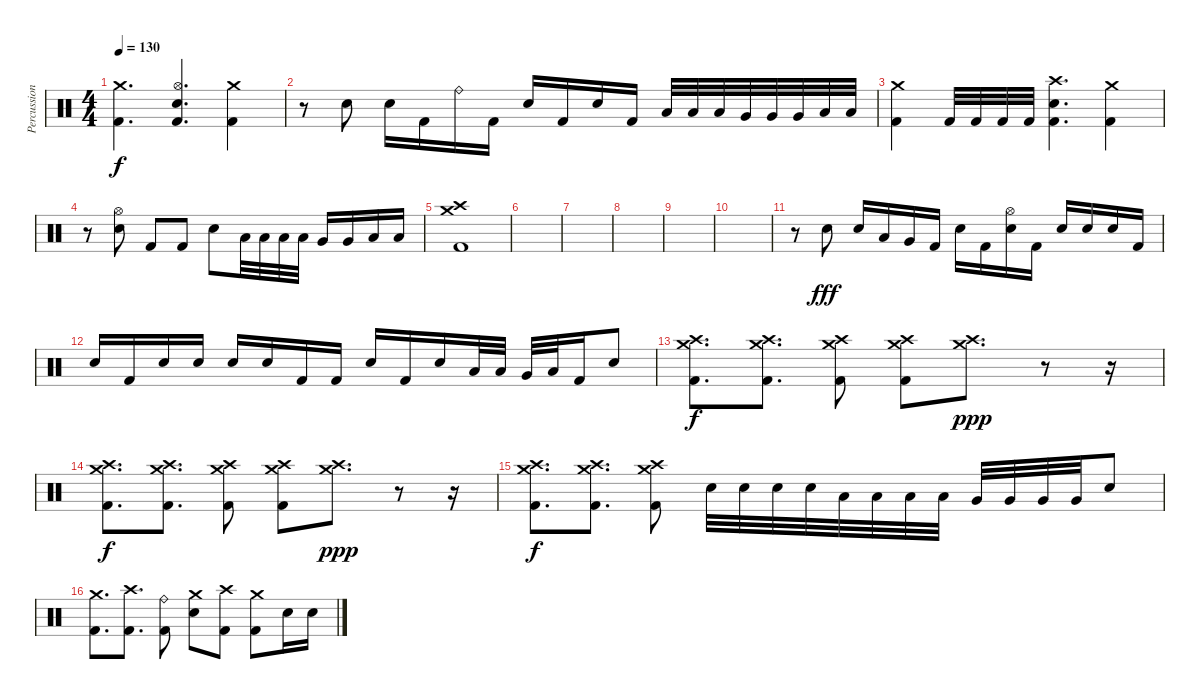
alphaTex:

\track ("Percussion" "Percussion") {instrument percussion}
\staff {score}
\articulation defaults
\ts (4 4)
\tempo 130
\clef neutral
\ks c
("Crash medium (hit)" "Kick (hit) 2").4{d dy f} ("Hi-Hat (open)" "Electric Snare (hit)" "Kick (hit) 2").4{d} ("Crash medium (hit)" "Kick (hit) 2").4 |
r.8 "Electric Snare (hit)".8 "Electric Snare (hit)".16 "Kick (hit) 2".16 "Ride (bell)".16 "Kick (hit) 2".16 "Electric Snare (hit)".16 "Kick (hit) 2".16 "Electric Snare (hit)".16 "Kick (hit) 2".16 "Low Tom (hit)".32 "Low Tom (hit)".32 "Low Tom (hit)".32 "Very Low Tom (hit)".32 "Very Low Tom (hit)".32 "Very Low Tom (hit)".32 "Low Floor Tom (hit)".32 "Low Floor Tom (hit)".32 |
("Crash medium (hit)" "Kick (hit) 2").4 "Kick (hit) 2".32 "Kick (hit) 2".32 "Kick (hit) 2".32 "Kick (hit) 2".32 ("Crash high (hit)" "Electric Snare (hit)" "Kick (hit) 2").4{d} ("Crash medium (hit)" "Kick (hit) 2").4 |
r.8 ("Hi-Hat (open)" "Electric Snare (hit)").8 "Kick (hit) 2".8 "Kick (hit) 2".8 "Electric Snare (hit)".8 "Low Tom (hit)".32 "Low Tom (hit)".32 "Low Tom (hit)".32 "Low Tom (hit)".32 "Very Low Tom (hit)".16 "Very Low Tom (hit)".16 "Low Floor Tom (hit)".16 "Low Floor Tom (hit)".16 |
("Crash medium (hit)" "Crash high (hit)" "Kick (hit) 2").1 |
|
|
|
|
|
r.8 "Electric Snare (hit)".8{dy fff} "Electric Snare (hit)".16 "Low Tom (hit)".16 "Very Low Tom (hit)".16 "Kick (hit) 2".16 "Electric Snare (hit)".16 "Kick (hit) 2".16 ("Hi-Hat (open)" "Electric Snare (hit)").16 "Kick (hit) 2".16 "Electric Snare (hit)".16 "Electric Snare (hit)".16 "Electric Snare (hit)".16 "Kick (hit) 2".16 |
"Electric Snare (hit)".16 "Kick (hit) 2".16 "Electric Snare (hit)".16 "Electric Snare (hit)".16 "Electric Snare (hit)".16 "Electric Snare (hit)".16 "Kick (hit) 2".16 "Kick (hit) 2".16 "Electric Snare (hit)".16 "Kick (hit) 2".16 "Electric Snare (hit)".16 "Low Tom (hit)".32 "Low Tom (hit)".32 "Very Low Tom (hit)".32 "Low Floor Tom (hit)".32 "Kick (hit) 2".16 "Electric Snare (hit)".8 |
("Crash medium (hit)" "Crash high (hit)" "Kick (hit) 2").8{d dy f} ("Crash medium (hit)" "Crash high (hit)" "Kick (hit) 2").8{d} ("Crash medium (hit)" "Crash high (hit)" "Kick (hit) 2").8 ("Crash medium (hit)" "Crash high (hit)" "Kick (hit) 2").8 ("Crash medium (hit)" "Crash high (hit)").8{d dy ppp} r.8 r.16 |
("Crash medium (hit)" "Crash high (hit)" "Kick (hit) 2").8{d dy f} ("Crash medium (hit)" "Crash high (hit)" "Kick (hit) 2").8{d} ("Crash medium (hit)" "Crash high (hit)" "Kick (hit) 2").8 ("Crash medium (hit)" "Crash high (hit)" "Kick (hit) 2").8 ("Crash medium (hit)" "Crash high (hit)").8{d dy ppp} r.8 r.16 |
("Crash medium (hit)" "Crash high (hit)" "Kick (hit) 2").8{d dy f} ("Crash medium (hit)" "Crash high (hit)" "Kick (hit) 2").8{d} ("Crash medium (hit)" "Crash high (hit)" "Kick (hit) 2").8 "Electric Snare (hit)".32 "Electric Snare (hit)".32 "Electric Snare (hit)".32 "Electric Snare (hit)".32 "Low Tom (hit)".32 "Low Tom (hit)".32 "Low Tom (hit)".32 "Low Tom (hit)".32 "Very Low Tom (hit)".32 "Very Low Tom (hit)".32 "Very Low Tom (hit)".32 "Very Low Tom (hit)".32 "Electric Snare (hit)".8 |
("Crash medium (hit)" "Kick (hit) 2").8{d} ("Crash high (hit)" "Kick (hit) 2").8{d} ("Ride (bell)" "Kick (hit) 2").8 ("Crash medium (hit)" "Electric Snare (hit)").8 ("Crash high (hit)" "Kick (hit) 2").8 ("Crash medium (hit)" "Kick (hit) 2").8 "Electric Snare (hit)".16 "Electric Snare (hit)".16
